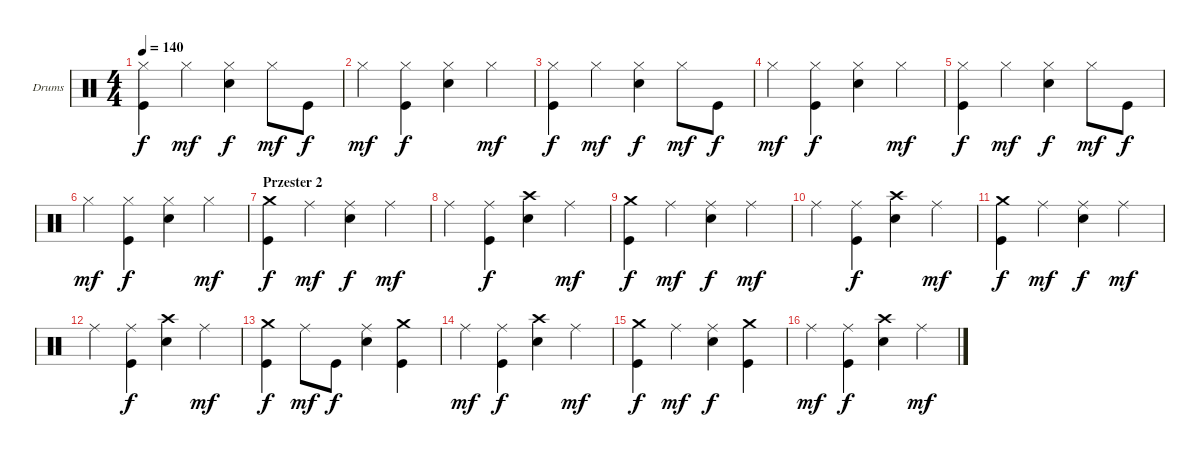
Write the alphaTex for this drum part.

\bracketExtendMode groupsimilarinstruments
\firstSystemTrackNameOrientation horizontal
\otherSystemsTrackNameOrientation horizontal
\track ("Drumkit" "Drums") {instrument percussion}
\staff {score}
\articulation defaults
\ts (4 4)
\tempo 140
\clef neutral
\ks c
("Kick (hit)" "Hi-Hat (closed)").4{dy f} "Hi-Hat (closed)".4{dy mf} ("Snare (hit) 2" "Hi-Hat (closed)").4{dy f} "Hi-Hat (closed)".8{dy mf} "Kick (hit)".8{dy f} |
"Hi-Hat (closed)".4{dy mf} ("Kick (hit)" "Hi-Hat (closed)").4{dy f} ("Snare (hit) 2" "Hi-Hat (closed)").4 "Hi-Hat (closed)".4{dy mf} |
("Kick (hit)" "Hi-Hat (closed)").4{dy f} "Hi-Hat (closed)".4{dy mf} ("Snare (hit) 2" "Hi-Hat (closed)").4{dy f} "Hi-Hat (closed)".8{dy mf} "Kick (hit)".8{dy f} |
"Hi-Hat (closed)".4{dy mf} ("Kick (hit)" "Hi-Hat (closed)").4{dy f} ("Snare (hit) 2" "Hi-Hat (closed)").4 "Hi-Hat (closed)".4{dy mf} |
("Kick (hit)" "Hi-Hat (closed)").4{dy f} "Hi-Hat (closed)".4{dy mf} ("Snare (hit) 2" "Hi-Hat (closed)").4{dy f} "Hi-Hat (closed)".8{dy mf} "Kick (hit)".8{dy f} |
"Hi-Hat (closed)".4{dy mf} ("Kick (hit)" "Hi-Hat (closed)").4{dy f} ("Snare (hit) 2" "Hi-Hat (closed)").4 "Hi-Hat (closed)".4{dy mf} |
\section ("" "Przester 2")
("Kick (hit)" "Crash medium (hit)").4{dy f} "Ride (middle)".4{dy mf} ("Snare (hit) 2" "Ride (middle)").4{dy f} "Ride (middle)".4{dy mf} |
"Ride (middle)".4 ("Kick (hit)" "Ride (middle)").4{dy f} ("Snare (hit) 2" "Crash high (hit)").4 "Ride (middle)".4{dy mf} |
("Kick (hit)" "Crash medium (hit)").4{dy f} "Ride (middle)".4{dy mf} ("Snare (hit) 2" "Ride (middle)").4{dy f} "Ride (middle)".4{dy mf} |
"Ride (middle)".4 ("Kick (hit)" "Ride (middle)").4{dy f} ("Snare (hit) 2" "Crash high (hit)").4 "Ride (middle)".4{dy mf} |
("Kick (hit)" "Crash medium (hit)").4{dy f} "Ride (middle)".4{dy mf} ("Snare (hit) 2" "Ride (middle)").4{dy f} "Ride (middle)".4{dy mf} |
"Ride (middle)".4 ("Kick (hit)" "Ride (middle)").4{dy f} ("Snare (hit) 2" "Crash high (hit)").4 "Ride (middle)".4{dy mf} |
("Kick (hit)" "Crash medium (hit)").4{dy f} "Ride (middle)".8{dy mf} "Kick (hit)".8{dy f} ("Snare (hit) 2" "Ride (middle)").4 ("Kick (hit)" "Crash medium (hit)").4 |
"Ride (middle)".4{dy mf} ("Kick (hit)" "Ride (middle)").4{dy f} ("Snare (hit) 2" "Crash high (hit)").4 "Ride (middle)".4{dy mf} |
("Kick (hit)" "Crash medium (hit)").4{dy f} "Ride (middle)".4{dy mf} ("Snare (hit) 2" "Ride (middle)").4{dy f} ("Kick (hit)" "Crash medium (hit)").4 |
"Ride (middle)".4{dy mf} ("Kick (hit)" "Ride (middle)").4{dy f} ("Snare (hit) 2" "Crash high (hit)").4 "Ride (middle)".4{dy mf}
